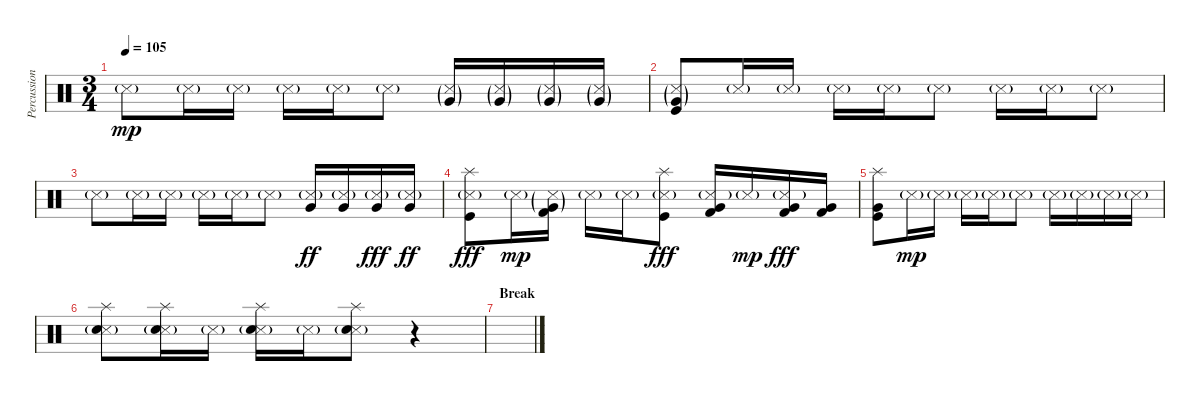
\track ("Percussions" "Percussion") {instrument percussion}
\staff {score}
\articulation defaults
\ts (3 4)
\tempo 105
\clef neutral
\ks c "Metronome (hit)"{g}.8{dy mp} "Metronome (hit)"{g}.16 "Metronome (hit)"{g}.16 "Metronome (hit)"{g}.16 "Metronome (hit)"{g}.16 "Metronome (hit)"{g}.8
("Metronome (hit)"{g} "Very Low Tom (hit)"{g}).16 ("Metronome (hit)"{g} "Very Low Tom (hit)"{g}).16 ("Metronome (hit)"{g} "Very Low Tom (hit)"{g}).16 ("Metronome (hit)"{g} "Very Low Tom (hit)"{g}).16 |
("Metronome (hit)"{g} "Very Low Tom (hit)"{g} "Kick (hit)").8 "Metronome (hit)"{g}.16 "Metronome (hit)"{g}.16 "Metronome (hit)"{g}.16 "Metronome (hit)"{g}.16 "Metronome (hit)"{g}.8 "Metronome (hit)"{g}.16 "Metronome (hit)"{g}.16 "Metronome (hit)"{g}.8 |
"Metronome (hit)"{g}.8 "Metronome (hit)"{g}.16 "Metronome (hit)"{g}.16 "Metronome (hit)"{g}.16 "Metronome (hit)"{g}.16 "Metronome (hit)"{g}.8 ("Metronome (hit)"{g} "Very Low Tom (hit)").16{dy ff} ("Metronome (hit)"{g} "Very Low Tom (hit)").16 ("Metronome (hit)"{g} "Very Low Tom (hit)").16{dy fff} ("Metronome (hit)"{g} "Very Low Tom (hit)").16{dy ff} |
("Metronome (hit)"{g} "Splash (hit)" "Kick (hit)").8{dy fff} "Metronome (hit)"{g}.16{dy mp} ("Metronome (hit)"{g} "Very Low Tom (hit)"{g} "Kick (hit) 2").16 "Metronome (hit)"{g}.16 "Metronome (hit)"{g}.16 ("Metronome (hit)"{g} "Splash (hit)" "Kick (hit)").8{dy fff} ("Metronome (hit)"{g} "Very Low Tom (hit)" "Kick (hit) 2").16 "Metronome (hit)"{g}.16{dy mp} ("Metronome (hit)"{g} "Very Low Tom (hit)" "Kick (hit) 2").16{dy fff} ("Very Low Tom (hit)" "Kick (hit) 2").16 |
("Very Low Tom (hit)" "Splash (hit)" "Kick (hit)").8 "Metronome (hit)"{g}.16{dy mp} "Metronome (hit)"{g}.16 "Metronome (hit)"{g}.16 "Metronome (hit)"{g}.16 "Metronome (hit)"{g}.8 "Metronome (hit)"{g}.16 "Metronome (hit)"{g}.16 "Metronome (hit)"{g}.16 "Metronome (hit)"{g}.16 |
("Metronome (hit)"{g} "Splash (hit)" "Electric Snare (hit)").8 ("Metronome (hit)"{g} "Splash (hit)" "Electric Snare (hit)").16 "Metronome (hit)"{g}.16 ("Metronome (hit)"{g} "Splash (hit)" "Electric Snare (hit)").16 "Metronome (hit)"{g}.16 ("Metronome (hit)"{g} "Splash (hit)" "Electric Snare (hit)").8 r.4 |
\section ("" "Break")
